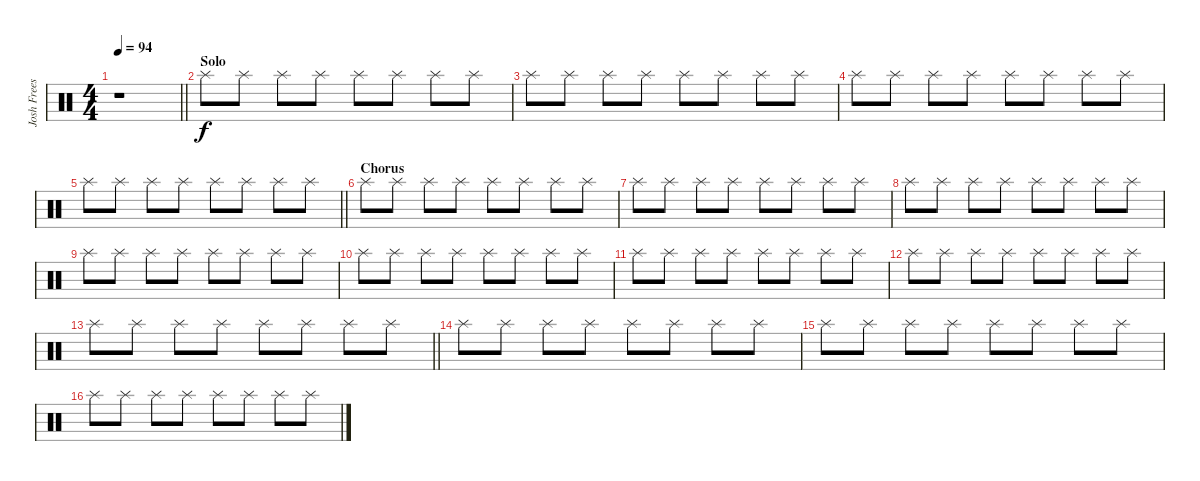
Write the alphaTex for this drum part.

\track ("Josh Freese (Studio Drummer)" "Josh Frees") {instrument percussion}
\staff {score}
\articulation defaults
\ts (4 4)
\tempo 94
\clef neutral
\barLineRight lightlight
\ks c
r.1{dy f} |
\section ("" "Solo")
"Splash (hit)".8 "Splash (hit)".8 "Splash (hit)".8 "Splash (hit)".8 "Splash (hit)".8 "Splash (hit)".8 "Splash (hit)".8 "Splash (hit)".8 |
"Splash (hit)".8 "Splash (hit)".8 "Splash (hit)".8 "Splash (hit)".8 "Splash (hit)".8 "Splash (hit)".8 "Splash (hit)".8 "Splash (hit)".8 |
"Splash (hit)".8 "Splash (hit)".8 "Splash (hit)".8 "Splash (hit)".8 "Splash (hit)".8 "Splash (hit)".8 "Splash (hit)".8 "Splash (hit)".8 |
\barLineRight lightlight "Splash (hit)".8 "Splash (hit)".8 "Splash (hit)".8 "Splash (hit)".8 "Splash (hit)".8 "Splash (hit)".8 "Splash (hit)".8 "Splash (hit)".8
|
\section ("" "Chorus")
"Splash (hit)".8 "Splash (hit)".8 "Splash (hit)".8 "Splash (hit)".8 "Splash (hit)".8 "Splash (hit)".8 "Splash (hit)".8 "Splash (hit)".8 |
"Splash (hit)".8 "Splash (hit)".8 "Splash (hit)".8 "Splash (hit)".8 "Splash (hit)".8 "Splash (hit)".8 "Splash (hit)".8 "Splash (hit)".8 |
"Splash (hit)".8 "Splash (hit)".8 "Splash (hit)".8 "Splash (hit)".8 "Splash (hit)".8 "Splash (hit)".8 "Splash (hit)".8 "Splash (hit)".8 |
"Splash (hit)".8 "Splash (hit)".8 "Splash (hit)".8 "Splash (hit)".8 "Splash (hit)".8 "Splash (hit)".8 "Splash (hit)".8 "Splash (hit)".8 |
"Splash (hit)".8 "Splash (hit)".8 "Splash (hit)".8 "Splash (hit)".8 "Splash (hit)".8 "Splash (hit)".8 "Splash (hit)".8 "Splash (hit)".8 |
"Splash (hit)".8 "Splash (hit)".8 "Splash (hit)".8 "Splash (hit)".8 "Splash (hit)".8 "Splash (hit)".8 "Splash (hit)".8 "Splash (hit)".8 |
"Splash (hit)".8 "Splash (hit)".8 "Splash (hit)".8 "Splash (hit)".8 "Splash (hit)".8 "Splash (hit)".8 "Splash (hit)".8 "Splash (hit)".8 |
\barLineRight lightlight "Splash (hit)".8 "Splash (hit)".8 "Splash (hit)".8 "Splash (hit)".8 "Splash (hit)".8 "Splash (hit)".8 "Splash (hit)".8 "Splash (hit)".8
|
"Splash (hit)".8 "Splash (hit)".8 "Splash (hit)".8 "Splash (hit)".8 "Splash (hit)".8 "Splash (hit)".8 "Splash (hit)".8 "Splash (hit)".8 |
"Splash (hit)".8 "Splash (hit)".8 "Splash (hit)".8 "Splash (hit)".8 "Splash (hit)".8 "Splash (hit)".8 "Splash (hit)".8 "Splash (hit)".8 |
"Splash (hit)".8 "Splash (hit)".8 "Splash (hit)".8 "Splash (hit)".8 "Splash (hit)".8 "Splash (hit)".8 "Splash (hit)".8 "Splash (hit)".8
